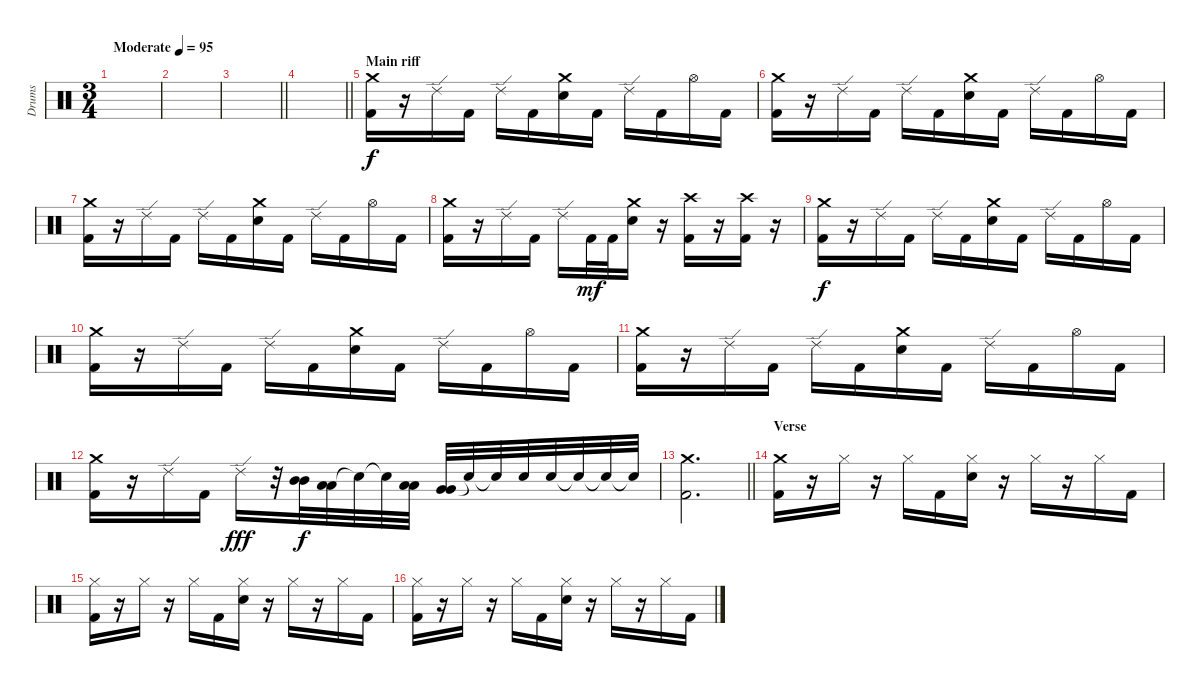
\track ("Drums" "Drums") {instrument percussion}
\staff {score}
\articulation defaults
\ts (3 4)
\tempo (95 "Moderate")
\clef neutral
\ks c
|
|
\barLineRight lightlight
|
\barLineRight lightlight
|
\section ("" "Main riff")
("Crash medium (hit)" "Kick (hit) 2").16 r.16 "Ride (edge) 2".16 "Kick (hit) 2".16 "Ride (edge) 2".16 "Kick (hit) 2".16 ("Crash medium (hit)" "Electric Snare (hit)").16 "Kick (hit) 2".16 "Ride (edge) 2".16 "Kick (hit) 2".16 "Hi-Hat (open)".16 "Kick (hit) 2".16 |
("Crash medium (hit)" "Kick (hit) 2").16 r.16 "Ride (edge) 2".16 "Kick (hit) 2".16 "Ride (edge) 2".16 "Kick (hit) 2".16 ("Crash medium (hit)" "Electric Snare (hit)").16 "Kick (hit) 2".16 "Ride (edge) 2".16 "Kick (hit) 2".16 "Hi-Hat (open)".16 "Kick (hit) 2".16 |
("Crash medium (hit)" "Kick (hit) 2").16 r.16 "Ride (edge) 2".16 "Kick (hit) 2".16 "Ride (edge) 2".16 "Kick (hit) 2".16 ("Crash medium (hit)" "Electric Snare (hit)").16 "Kick (hit) 2".16 "Ride (edge) 2".16 "Kick (hit) 2".16 "Hi-Hat (open)".16 "Kick (hit) 2".16 |
("Crash medium (hit)" "Kick (hit) 2").16 r.16 "Ride (edge) 2".16 "Kick (hit) 2".16 "Ride (edge) 2".16 "Kick (hit) 2".32{dy mf} "Kick (hit) 2".32 ("Crash medium (hit)" "Electric Snare (hit)").16 r.16 ("Crash high (hit)" "Kick (hit) 2").16 r.16 ("Crash high (hit)" "Kick (hit) 2").16 r.16 |
("Crash medium (hit)" "Kick (hit) 2").16{dy f} r.16 "Ride (edge) 2".16 "Kick (hit) 2".16 "Ride (edge) 2".16 "Kick (hit) 2".16 ("Crash medium (hit)" "Electric Snare (hit)").16 "Kick (hit) 2".16 "Ride (edge) 2".16 "Kick (hit) 2".16 "Hi-Hat (open)".16 "Kick (hit) 2".16 |
("Crash medium (hit)" "Kick (hit) 2").16 r.16 "Ride (edge) 2".16 "Kick (hit) 2".16 "Ride (edge) 2".16 "Kick (hit) 2".16 ("Crash medium (hit)" "Electric Snare (hit)").16 "Kick (hit) 2".16 "Ride (edge) 2".16 "Kick (hit) 2".16 "Hi-Hat (open)".16 "Kick (hit) 2".16 |
("Crash medium (hit)" "Kick (hit) 2").16 r.16 "Ride (edge) 2".16 "Kick (hit) 2".16 "Ride (edge) 2".16 "Kick (hit) 2".16 ("Crash medium (hit)" "Electric Snare (hit)").16 "Kick (hit) 2".16 "Ride (edge) 2".16 "Kick (hit) 2".16 "Hi-Hat (open)".16 "Kick (hit) 2".16 |
("Crash medium (hit)" "Kick (hit) 2").16 r.16 "Ride (edge) 2".16 "Kick (hit) 2".16 "Ride (edge) 2".16{dy fff} r.32 ("Mid Tom (hit)" "Mid Tom (hit)").32{dy f} ("Low Tom (hit)" "Low Tom (hit)").32 "Snare (hit)"{t}.32 "Snare (hit)"{t}.32 ("Low Tom (hit)" "Low Tom (hit)").32 ("Very Low Tom (hit)" "Very Low Tom (hit)").32 "Snare (hit)"{t}.32 "Snare (hit)"{t}.32 "Electric Snare (hit)".32 "Electric Snare (hit)".32 "Snare (hit)"{t}.32 "Snare (hit)"{t}.32 "Snare (hit)"{t}.32 |
\barLineRight lightlight
("Crash medium (hit)" "Kick (hit) 2").2{d} |
\section ("" "Verse ")
("Crash medium (hit)" "Kick (hit) 2").16 r.16 "Hi-Hat (closed)".16 r.16 "Hi-Hat (closed)".16 "Kick (hit) 2".16 ("Hi-Hat (closed)" "Electric Snare (hit)").16 r.16 "Hi-Hat (closed)".16 r.16 "Hi-Hat (closed)".16 "Kick (hit) 2".16 |
("Hi-Hat (closed)" "Kick (hit) 2").16 r.16 "Hi-Hat (closed)".16 r.16 "Hi-Hat (closed)".16 "Kick (hit) 2".16 ("Hi-Hat (closed)" "Electric Snare (hit)").16 r.16 "Hi-Hat (closed)".16 r.16 "Hi-Hat (closed)".16 "Kick (hit) 2".16 |
("Hi-Hat (closed)" "Kick (hit) 2").16 r.16 "Hi-Hat (closed)".16 r.16 "Hi-Hat (closed)".16 "Kick (hit) 2".16 ("Hi-Hat (closed)" "Electric Snare (hit)").16 r.16 "Hi-Hat (closed)".16 r.16 "Hi-Hat (closed)".16 "Kick (hit) 2".16
